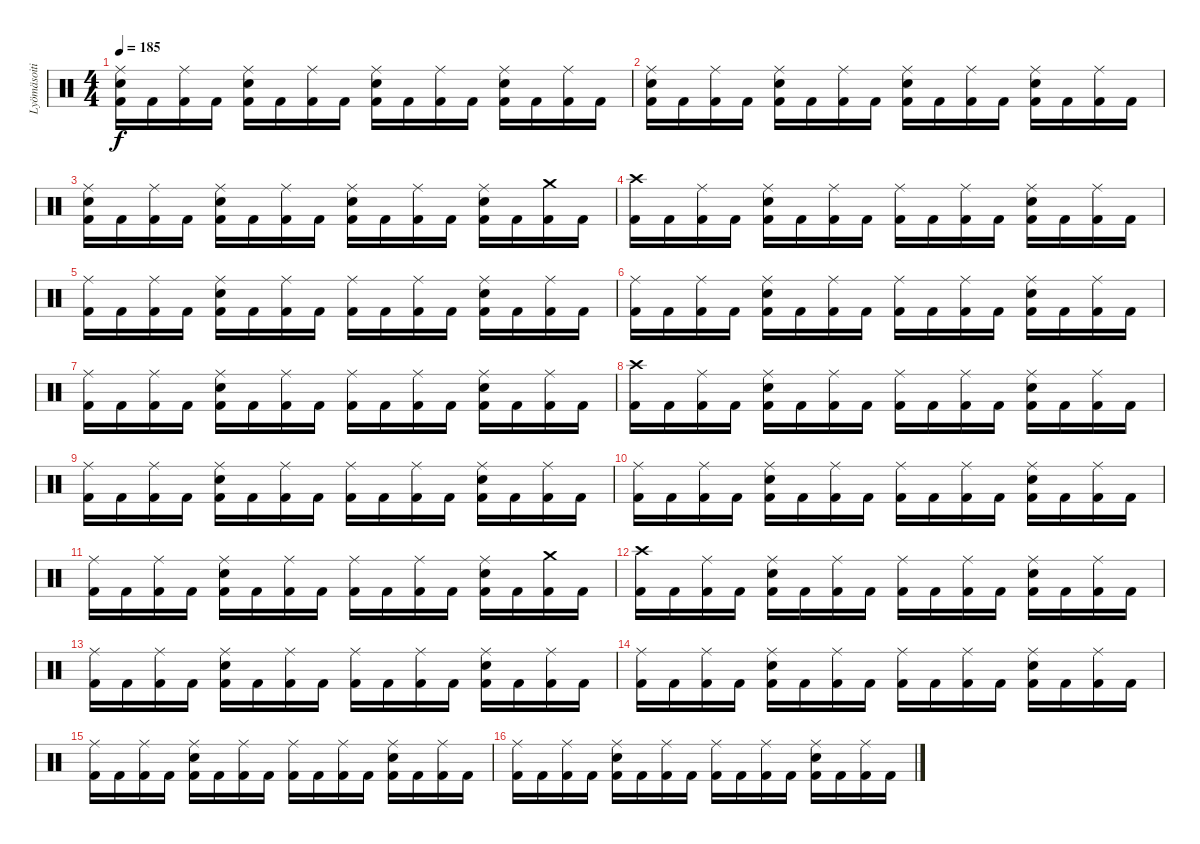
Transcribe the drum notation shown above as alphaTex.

\track ("Lyömäsoitin" "Lyömäsoiti") {instrument percussion}
\staff {score}
\articulation defaults
\ts (4 4)
\tempo 185
\clef neutral
\ks c
("Ride (middle)" "Electric Snare (hit)" "Kick (hit) 2").16{dy f} "Kick (hit) 2".16 ("Ride (middle)" "Kick (hit) 2").16 "Kick (hit) 2".16 ("Ride (middle)" "Electric Snare (hit)" "Kick (hit) 2").16 "Kick (hit) 2".16 ("Ride (middle)" "Kick (hit) 2").16 "Kick (hit) 2".16 ("Ride (middle)" "Electric Snare (hit)" "Kick (hit) 2").16 "Kick (hit) 2".16 ("Ride (middle)" "Kick (hit) 2").16 "Kick (hit) 2".16 ("Ride (middle)" "Electric Snare (hit)" "Kick (hit) 2").16 "Kick (hit) 2".16 ("Ride (middle)" "Kick (hit) 2").16 "Kick (hit) 2".16 |
("Ride (middle)" "Electric Snare (hit)" "Kick (hit) 2").16 "Kick (hit) 2".16 ("Ride (middle)" "Kick (hit) 2").16 "Kick (hit) 2".16 ("Ride (middle)" "Electric Snare (hit)" "Kick (hit) 2").16 "Kick (hit) 2".16 ("Ride (middle)" "Kick (hit) 2").16 "Kick (hit) 2".16 ("Ride (middle)" "Electric Snare (hit)" "Kick (hit) 2").16 "Kick (hit) 2".16 ("Ride (middle)" "Kick (hit) 2").16 "Kick (hit) 2".16 ("Ride (middle)" "Electric Snare (hit)" "Kick (hit) 2").16 "Kick (hit) 2".16 ("Ride (middle)" "Kick (hit) 2").16 "Kick (hit) 2".16 |
("Ride (middle)" "Electric Snare (hit)" "Kick (hit) 2").16 "Kick (hit) 2".16 ("Ride (middle)" "Kick (hit) 2").16 "Kick (hit) 2".16 ("Ride (middle)" "Electric Snare (hit)" "Kick (hit) 2").16 "Kick (hit) 2".16 ("Ride (middle)" "Kick (hit) 2").16 "Kick (hit) 2".16 ("Ride (middle)" "Electric Snare (hit)" "Kick (hit) 2").16 "Kick (hit) 2".16 ("Ride (middle)" "Kick (hit) 2").16 "Kick (hit) 2".16 ("Ride (middle)" "Electric Snare (hit)" "Kick (hit) 2").16 "Kick (hit) 2".16 ("Crash medium (hit)" "Kick (hit) 2").16 "Kick (hit) 2".16 |
("Crash high (hit)" "Kick (hit) 2").16 "Kick (hit) 2".16 ("Ride (middle)" "Kick (hit) 2").16 "Kick (hit) 2".16 ("Ride (middle)" "Electric Snare (hit)" "Kick (hit) 2").16 "Kick (hit) 2".16 ("Ride (middle)" "Kick (hit) 2").16 "Kick (hit) 2".16 ("Ride (middle)" "Kick (hit) 2").16 "Kick (hit) 2".16 ("Ride (middle)" "Kick (hit) 2").16 "Kick (hit) 2".16 ("Ride (middle)" "Electric Snare (hit)" "Kick (hit) 2").16 "Kick (hit) 2".16 ("Ride (middle)" "Kick (hit) 2").16 "Kick (hit) 2".16 |
("Ride (middle)" "Kick (hit) 2").16 "Kick (hit) 2".16 ("Ride (middle)" "Kick (hit) 2").16 "Kick (hit) 2".16 ("Ride (middle)" "Electric Snare (hit)" "Kick (hit) 2").16 "Kick (hit) 2".16 ("Ride (middle)" "Kick (hit) 2").16 "Kick (hit) 2".16 ("Ride (middle)" "Kick (hit) 2").16 "Kick (hit) 2".16 ("Ride (middle)" "Kick (hit) 2").16 "Kick (hit) 2".16 ("Ride (middle)" "Electric Snare (hit)" "Kick (hit) 2").16 "Kick (hit) 2".16 ("Ride (middle)" "Kick (hit) 2").16 "Kick (hit) 2".16 |
("Ride (middle)" "Kick (hit) 2").16 "Kick (hit) 2".16 ("Ride (middle)" "Kick (hit) 2").16 "Kick (hit) 2".16 ("Ride (middle)" "Electric Snare (hit)" "Kick (hit) 2").16 "Kick (hit) 2".16 ("Ride (middle)" "Kick (hit) 2").16 "Kick (hit) 2".16 ("Ride (middle)" "Kick (hit) 2").16 "Kick (hit) 2".16 ("Ride (middle)" "Kick (hit) 2").16 "Kick (hit) 2".16 ("Ride (middle)" "Electric Snare (hit)" "Kick (hit) 2").16 "Kick (hit) 2".16 ("Ride (middle)" "Kick (hit) 2").16 "Kick (hit) 2".16 |
("Ride (middle)" "Kick (hit) 2").16 "Kick (hit) 2".16 ("Ride (middle)" "Kick (hit) 2").16 "Kick (hit) 2".16 ("Ride (middle)" "Electric Snare (hit)" "Kick (hit) 2").16 "Kick (hit) 2".16 ("Ride (middle)" "Kick (hit) 2").16 "Kick (hit) 2".16 ("Ride (middle)" "Kick (hit) 2").16 "Kick (hit) 2".16 ("Ride (middle)" "Kick (hit) 2").16 "Kick (hit) 2".16 ("Ride (middle)" "Electric Snare (hit)" "Kick (hit) 2").16 "Kick (hit) 2".16 ("Ride (middle)" "Kick (hit) 2").16 "Kick (hit) 2".16 |
("Crash high (hit)" "Kick (hit) 2").16 "Kick (hit) 2".16 ("Ride (middle)" "Kick (hit) 2").16 "Kick (hit) 2".16 ("Ride (middle)" "Electric Snare (hit)" "Kick (hit) 2").16 "Kick (hit) 2".16 ("Ride (middle)" "Kick (hit) 2").16 "Kick (hit) 2".16 ("Ride (middle)" "Kick (hit) 2").16 "Kick (hit) 2".16 ("Ride (middle)" "Kick (hit) 2").16 "Kick (hit) 2".16 ("Ride (middle)" "Electric Snare (hit)" "Kick (hit) 2").16 "Kick (hit) 2".16 ("Ride (middle)" "Kick (hit) 2").16 "Kick (hit) 2".16 |
("Ride (middle)" "Kick (hit) 2").16 "Kick (hit) 2".16 ("Ride (middle)" "Kick (hit) 2").16 "Kick (hit) 2".16 ("Ride (middle)" "Electric Snare (hit)" "Kick (hit) 2").16 "Kick (hit) 2".16 ("Ride (middle)" "Kick (hit) 2").16 "Kick (hit) 2".16 ("Ride (middle)" "Kick (hit) 2").16 "Kick (hit) 2".16 ("Ride (middle)" "Kick (hit) 2").16 "Kick (hit) 2".16 ("Ride (middle)" "Electric Snare (hit)" "Kick (hit) 2").16 "Kick (hit) 2".16 ("Ride (middle)" "Kick (hit) 2").16 "Kick (hit) 2".16 |
("Ride (middle)" "Kick (hit) 2").16 "Kick (hit) 2".16 ("Ride (middle)" "Kick (hit) 2").16 "Kick (hit) 2".16 ("Ride (middle)" "Electric Snare (hit)" "Kick (hit) 2").16 "Kick (hit) 2".16 ("Ride (middle)" "Kick (hit) 2").16 "Kick (hit) 2".16 ("Ride (middle)" "Kick (hit) 2").16 "Kick (hit) 2".16 ("Ride (middle)" "Kick (hit) 2").16 "Kick (hit) 2".16 ("Ride (middle)" "Electric Snare (hit)" "Kick (hit) 2").16 "Kick (hit) 2".16 ("Ride (middle)" "Kick (hit) 2").16 "Kick (hit) 2".16 |
("Ride (middle)" "Kick (hit) 2").16 "Kick (hit) 2".16 ("Ride (middle)" "Kick (hit) 2").16 "Kick (hit) 2".16 ("Ride (middle)" "Electric Snare (hit)" "Kick (hit) 2").16 "Kick (hit) 2".16 ("Ride (middle)" "Kick (hit) 2").16 "Kick (hit) 2".16 ("Ride (middle)" "Kick (hit) 2").16 "Kick (hit) 2".16 ("Ride (middle)" "Kick (hit) 2").16 "Kick (hit) 2".16 ("Ride (middle)" "Electric Snare (hit)" "Kick (hit) 2").16 "Kick (hit) 2".16 ("Crash medium (hit)" "Kick (hit) 2").16 "Kick (hit) 2".16 |
("Crash high (hit)" "Kick (hit) 2").16{volume 12} "Kick (hit) 2".16 ("Ride (middle)" "Kick (hit) 2").16 "Kick (hit) 2".16 ("Ride (middle)" "Electric Snare (hit)" "Kick (hit) 2").16 "Kick (hit) 2".16 ("Ride (middle)" "Kick (hit) 2").16 "Kick (hit) 2".16 ("Ride (middle)" "Kick (hit) 2").16 "Kick (hit) 2".16 ("Ride (middle)" "Kick (hit) 2").16 "Kick (hit) 2".16 ("Ride (middle)" "Electric Snare (hit)" "Kick (hit) 2").16 "Kick (hit) 2".16 ("Ride (middle)" "Kick (hit) 2").16 "Kick (hit) 2".16 |
("Ride (middle)" "Kick (hit) 2").16 "Kick (hit) 2".16 ("Ride (middle)" "Kick (hit) 2").16 "Kick (hit) 2".16 ("Ride (middle)" "Electric Snare (hit)" "Kick (hit) 2").16 "Kick (hit) 2".16 ("Ride (middle)" "Kick (hit) 2").16 "Kick (hit) 2".16 ("Ride (middle)" "Kick (hit) 2").16 "Kick (hit) 2".16 ("Ride (middle)" "Kick (hit) 2").16 "Kick (hit) 2".16 ("Ride (middle)" "Electric Snare (hit)" "Kick (hit) 2").16 "Kick (hit) 2".16 ("Ride (middle)" "Kick (hit) 2").16 "Kick (hit) 2".16 |
("Ride (middle)" "Kick (hit) 2").16{volume 10} "Kick (hit) 2".16 ("Ride (middle)" "Kick (hit) 2").16 "Kick (hit) 2".16 ("Ride (middle)" "Electric Snare (hit)" "Kick (hit) 2").16 "Kick (hit) 2".16 ("Ride (middle)" "Kick (hit) 2").16 "Kick (hit) 2".16 ("Ride (middle)" "Kick (hit) 2").16 "Kick (hit) 2".16 ("Ride (middle)" "Kick (hit) 2").16 "Kick (hit) 2".16 ("Ride (middle)" "Electric Snare (hit)" "Kick (hit) 2").16 "Kick (hit) 2".16 ("Ride (middle)" "Kick (hit) 2").16 "Kick (hit) 2".16 |
("Ride (middle)" "Kick (hit) 2").16 "Kick (hit) 2".16 ("Ride (middle)" "Kick (hit) 2").16 "Kick (hit) 2".16 ("Ride (middle)" "Electric Snare (hit)" "Kick (hit) 2").16 "Kick (hit) 2".16 ("Ride (middle)" "Kick (hit) 2").16 "Kick (hit) 2".16 ("Ride (middle)" "Kick (hit) 2").16 "Kick (hit) 2".16 ("Ride (middle)" "Kick (hit) 2").16 "Kick (hit) 2".16 ("Ride (middle)" "Electric Snare (hit)" "Kick (hit) 2").16 "Kick (hit) 2".16 ("Ride (middle)" "Kick (hit) 2").16 "Kick (hit) 2".16 |
("Ride (middle)" "Kick (hit) 2").16{volume 8} "Kick (hit) 2".16 ("Ride (middle)" "Kick (hit) 2").16 "Kick (hit) 2".16 ("Ride (middle)" "Electric Snare (hit)" "Kick (hit) 2").16 "Kick (hit) 2".16 ("Ride (middle)" "Kick (hit) 2").16 "Kick (hit) 2".16 ("Ride (middle)" "Kick (hit) 2").16 "Kick (hit) 2".16 ("Ride (middle)" "Kick (hit) 2").16 "Kick (hit) 2".16 ("Ride (middle)" "Electric Snare (hit)" "Kick (hit) 2").16 "Kick (hit) 2".16 ("Ride (middle)" "Kick (hit) 2").16 "Kick (hit) 2".16
